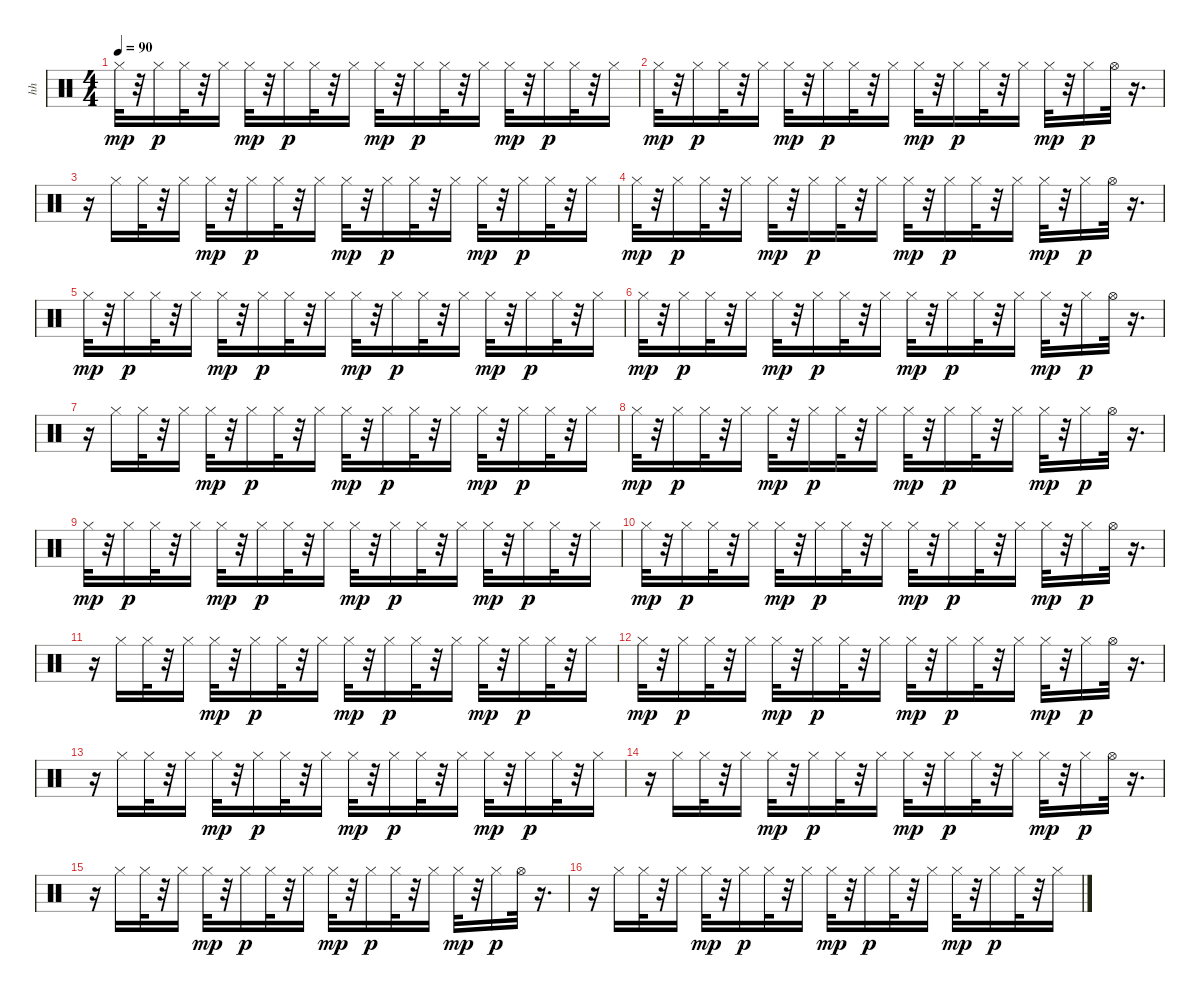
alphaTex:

\track ("hh" "hh") {instrument percussion}
\staff {score}
\articulation defaults
\ts (4 4)
\tempo 90
\clef neutral
\ks c "Hi-Hat (closed)".32{dy mp}
r.32 "Hi-Hat (closed)".16{dy p} "Hi-Hat (closed)".32 r.32 "Hi-Hat (closed)".16 "Hi-Hat (closed)".32{dy mp} r.32 "Hi-Hat (closed)".16{dy p} "Hi-Hat (closed)".32 r.32 "Hi-Hat (closed)".16 "Hi-Hat (closed)".32{dy mp} r.32 "Hi-Hat (closed)".16{dy p} "Hi-Hat (closed)".32 r.32 "Hi-Hat (closed)".16 "Hi-Hat (closed)".32{dy mp} r.32 "Hi-Hat (closed)".16{dy p} "Hi-Hat (closed)".32 r.32 "Hi-Hat (closed)".16 |
"Hi-Hat (closed)".32{dy mp} r.32 "Hi-Hat (closed)".16{dy p} "Hi-Hat (closed)".32 r.32 "Hi-Hat (closed)".16 "Hi-Hat (closed)".32{dy mp} r.32 "Hi-Hat (closed)".16{dy p} "Hi-Hat (closed)".32 r.32 "Hi-Hat (closed)".16 "Hi-Hat (closed)".32{dy mp} r.32 "Hi-Hat (closed)".16{dy p} "Hi-Hat (closed)".32 r.32 "Hi-Hat (closed)".16 "Hi-Hat (closed)".32{dy mp} r.32 "Hi-Hat (closed)".16{dy p} "Hi-Hat (open)".32 r.16{d} |
r.16 "Hi-Hat (closed)".16 "Hi-Hat (closed)".32 r.32 "Hi-Hat (closed)".16 "Hi-Hat (closed)".32{dy mp} r.32 "Hi-Hat (closed)".16{dy p} "Hi-Hat (closed)".32 r.32 "Hi-Hat (closed)".16 "Hi-Hat (closed)".32{dy mp} r.32 "Hi-Hat (closed)".16{dy p} "Hi-Hat (closed)".32 r.32 "Hi-Hat (closed)".16 "Hi-Hat (closed)".32{dy mp} r.32 "Hi-Hat (closed)".16{dy p} "Hi-Hat (closed)".32 r.32 "Hi-Hat (closed)".16 |
"Hi-Hat (closed)".32{dy mp} r.32 "Hi-Hat (closed)".16{dy p} "Hi-Hat (closed)".32 r.32 "Hi-Hat (closed)".16 "Hi-Hat (closed)".32{dy mp} r.32 "Hi-Hat (closed)".16{dy p} "Hi-Hat (closed)".32 r.32 "Hi-Hat (closed)".16 "Hi-Hat (closed)".32{dy mp} r.32 "Hi-Hat (closed)".16{dy p} "Hi-Hat (closed)".32 r.32 "Hi-Hat (closed)".16 "Hi-Hat (closed)".32{dy mp} r.32 "Hi-Hat (closed)".16{dy p} "Hi-Hat (open)".32 r.16{d} |
"Hi-Hat (closed)".32{dy mp} r.32 "Hi-Hat (closed)".16{dy p} "Hi-Hat (closed)".32 r.32 "Hi-Hat (closed)".16 "Hi-Hat (closed)".32{dy mp} r.32 "Hi-Hat (closed)".16{dy p} "Hi-Hat (closed)".32 r.32 "Hi-Hat (closed)".16 "Hi-Hat (closed)".32{dy mp} r.32 "Hi-Hat (closed)".16{dy p} "Hi-Hat (closed)".32 r.32 "Hi-Hat (closed)".16 "Hi-Hat (closed)".32{dy mp} r.32 "Hi-Hat (closed)".16{dy p} "Hi-Hat (closed)".32 r.32 "Hi-Hat (closed)".16 |
"Hi-Hat (closed)".32{dy mp} r.32 "Hi-Hat (closed)".16{dy p} "Hi-Hat (closed)".32 r.32 "Hi-Hat (closed)".16 "Hi-Hat (closed)".32{dy mp} r.32 "Hi-Hat (closed)".16{dy p} "Hi-Hat (closed)".32 r.32 "Hi-Hat (closed)".16 "Hi-Hat (closed)".32{dy mp} r.32 "Hi-Hat (closed)".16{dy p} "Hi-Hat (closed)".32 r.32 "Hi-Hat (closed)".16 "Hi-Hat (closed)".32{dy mp} r.32 "Hi-Hat (closed)".16{dy p} "Hi-Hat (open)".32 r.16{d} |
r.16 "Hi-Hat (closed)".16 "Hi-Hat (closed)".32 r.32 "Hi-Hat (closed)".16 "Hi-Hat (closed)".32{dy mp} r.32 "Hi-Hat (closed)".16{dy p} "Hi-Hat (closed)".32 r.32 "Hi-Hat (closed)".16 "Hi-Hat (closed)".32{dy mp} r.32 "Hi-Hat (closed)".16{dy p} "Hi-Hat (closed)".32 r.32 "Hi-Hat (closed)".16 "Hi-Hat (closed)".32{dy mp} r.32 "Hi-Hat (closed)".16{dy p} "Hi-Hat (closed)".32 r.32 "Hi-Hat (closed)".16 |
"Hi-Hat (closed)".32{dy mp} r.32 "Hi-Hat (closed)".16{dy p} "Hi-Hat (closed)".32 r.32 "Hi-Hat (closed)".16 "Hi-Hat (closed)".32{dy mp} r.32 "Hi-Hat (closed)".16{dy p} "Hi-Hat (closed)".32 r.32 "Hi-Hat (closed)".16 "Hi-Hat (closed)".32{dy mp} r.32 "Hi-Hat (closed)".16{dy p} "Hi-Hat (closed)".32 r.32 "Hi-Hat (closed)".16 "Hi-Hat (closed)".32{dy mp} r.32 "Hi-Hat (closed)".16{dy p} "Hi-Hat (open)".32 r.16{d} |
"Hi-Hat (closed)".32{dy mp} r.32 "Hi-Hat (closed)".16{dy p} "Hi-Hat (closed)".32 r.32 "Hi-Hat (closed)".16 "Hi-Hat (closed)".32{dy mp} r.32 "Hi-Hat (closed)".16{dy p} "Hi-Hat (closed)".32 r.32 "Hi-Hat (closed)".16 "Hi-Hat (closed)".32{dy mp} r.32 "Hi-Hat (closed)".16{dy p} "Hi-Hat (closed)".32 r.32 "Hi-Hat (closed)".16 "Hi-Hat (closed)".32{dy mp} r.32 "Hi-Hat (closed)".16{dy p} "Hi-Hat (closed)".32 r.32 "Hi-Hat (closed)".16 |
"Hi-Hat (closed)".32{dy mp} r.32 "Hi-Hat (closed)".16{dy p} "Hi-Hat (closed)".32 r.32 "Hi-Hat (closed)".16 "Hi-Hat (closed)".32{dy mp} r.32 "Hi-Hat (closed)".16{dy p} "Hi-Hat (closed)".32 r.32 "Hi-Hat (closed)".16 "Hi-Hat (closed)".32{dy mp} r.32 "Hi-Hat (closed)".16{dy p} "Hi-Hat (closed)".32 r.32 "Hi-Hat (closed)".16 "Hi-Hat (closed)".32{dy mp} r.32 "Hi-Hat (closed)".16{dy p} "Hi-Hat (open)".32 r.16{d} |
r.16 "Hi-Hat (closed)".16 "Hi-Hat (closed)".32 r.32 "Hi-Hat (closed)".16 "Hi-Hat (closed)".32{dy mp} r.32 "Hi-Hat (closed)".16{dy p} "Hi-Hat (closed)".32 r.32 "Hi-Hat (closed)".16 "Hi-Hat (closed)".32{dy mp} r.32 "Hi-Hat (closed)".16{dy p} "Hi-Hat (closed)".32 r.32 "Hi-Hat (closed)".16 "Hi-Hat (closed)".32{dy mp} r.32 "Hi-Hat (closed)".16{dy p} "Hi-Hat (closed)".32 r.32 "Hi-Hat (closed)".16 |
"Hi-Hat (closed)".32{dy mp} r.32 "Hi-Hat (closed)".16{dy p} "Hi-Hat (closed)".32 r.32 "Hi-Hat (closed)".16 "Hi-Hat (closed)".32{dy mp} r.32 "Hi-Hat (closed)".16{dy p} "Hi-Hat (closed)".32 r.32 "Hi-Hat (closed)".16 "Hi-Hat (closed)".32{dy mp} r.32 "Hi-Hat (closed)".16{dy p} "Hi-Hat (closed)".32 r.32 "Hi-Hat (closed)".16 "Hi-Hat (closed)".32{dy mp} r.32 "Hi-Hat (closed)".16{dy p} "Hi-Hat (open)".32 r.16{d} |
r.16 "Hi-Hat (closed)".16 "Hi-Hat (closed)".32 r.32 "Hi-Hat (closed)".16 "Hi-Hat (closed)".32{dy mp} r.32 "Hi-Hat (closed)".16{dy p} "Hi-Hat (closed)".32 r.32 "Hi-Hat (closed)".16 "Hi-Hat (closed)".32{dy mp} r.32 "Hi-Hat (closed)".16{dy p} "Hi-Hat (closed)".32 r.32 "Hi-Hat (closed)".16 "Hi-Hat (closed)".32{dy mp} r.32 "Hi-Hat (closed)".16{dy p} "Hi-Hat (closed)".32 r.32 "Hi-Hat (closed)".16 |
r.16 "Hi-Hat (closed)".16 "Hi-Hat (closed)".32 r.32 "Hi-Hat (closed)".16 "Hi-Hat (closed)".32{dy mp} r.32 "Hi-Hat (closed)".16{dy p} "Hi-Hat (closed)".32 r.32 "Hi-Hat (closed)".16 "Hi-Hat (closed)".32{dy mp} r.32 "Hi-Hat (closed)".16{dy p} "Hi-Hat (closed)".32 r.32 "Hi-Hat (closed)".16 "Hi-Hat (closed)".32{dy mp} r.32 "Hi-Hat (closed)".16{dy p} "Hi-Hat (open)".32 r.16{d} |
r.16 "Hi-Hat (closed)".16 "Hi-Hat (closed)".32 r.32 "Hi-Hat (closed)".16 "Hi-Hat (closed)".32{dy mp} r.32 "Hi-Hat (closed)".16{dy p} "Hi-Hat (closed)".32 r.32 "Hi-Hat (closed)".16 "Hi-Hat (closed)".32{dy mp} r.32 "Hi-Hat (closed)".16{dy p} "Hi-Hat (closed)".32 r.32 "Hi-Hat (closed)".16 "Hi-Hat (closed)".32{dy mp} r.32 "Hi-Hat (closed)".16{dy p} "Hi-Hat (open)".32 r.16{d} |
r.16 "Hi-Hat (closed)".16 "Hi-Hat (closed)".32 r.32 "Hi-Hat (closed)".16 "Hi-Hat (closed)".32{dy mp} r.32 "Hi-Hat (closed)".16{dy p} "Hi-Hat (closed)".32 r.32 "Hi-Hat (closed)".16 "Hi-Hat (closed)".32{dy mp} r.32 "Hi-Hat (closed)".16{dy p} "Hi-Hat (closed)".32 r.32 "Hi-Hat (closed)".16 "Hi-Hat (closed)".32{dy mp} r.32 "Hi-Hat (closed)".16{dy p} "Hi-Hat (closed)".32 r.32 "Hi-Hat (closed)".16
